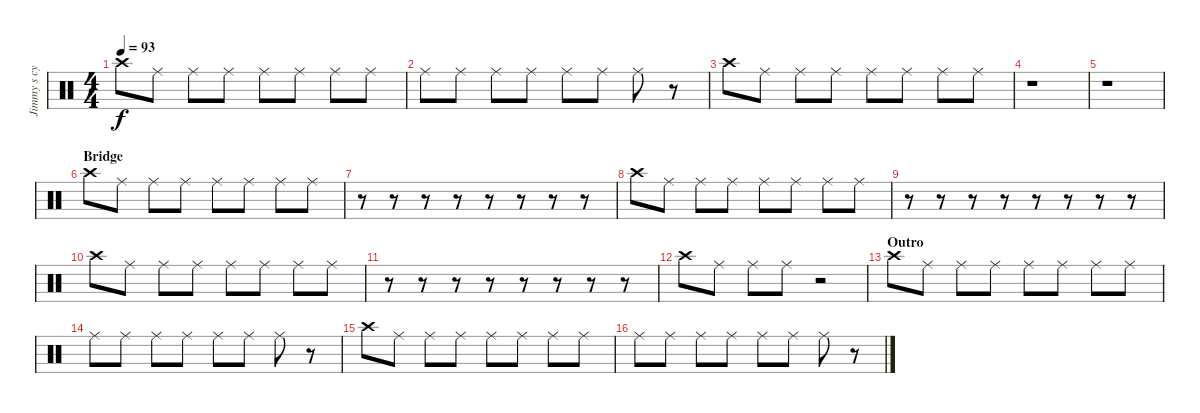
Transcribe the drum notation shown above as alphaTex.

\track ("Jimmy s cymbals" "Jimmy s cy") {instrument percussion}
\staff {score}
\articulation defaults
\ts (4 4)
\tempo 93
\clef neutral
\ks c "Crash high (hit)".8{dy f} "Ride (middle)".8 "Ride (middle)".8 "Ride (middle)".8 "Ride (middle)".8 "Ride (middle)".8 "Ride (middle)".8 "Ride (middle)".8
|
"Ride (middle)".8 "Ride (middle)".8 "Ride (middle)".8 "Ride (middle)".8 "Ride (middle)".8 "Ride (middle)".8 "Ride (middle)".8 r.8 |
"Crash high (hit)".8 "Ride (middle)".8 "Ride (middle)".8 "Ride (middle)".8 "Ride (middle)".8 "Ride (middle)".8 "Ride (middle)".8 "Ride (middle)".8 |
r.1 |
r.1 |
\section ("" "Bridge")
"Crash high (hit)".8 "Ride (middle)".8 "Ride (middle)".8 "Ride (middle)".8 "Ride (middle)".8 "Ride (middle)".8 "Ride (middle)".8 "Ride (middle)".8 |
r.8 r.8 r.8 r.8 r.8 r.8 r.8 r.8 |
"Crash high (hit)".8 "Ride (middle)".8 "Ride (middle)".8 "Ride (middle)".8 "Ride (middle)".8 "Ride (middle)".8 "Ride (middle)".8 "Ride (middle)".8 |
r.8 r.8 r.8 r.8 r.8 r.8 r.8 r.8 |
"Crash high (hit)".8 "Ride (middle)".8 "Ride (middle)".8 "Ride (middle)".8 "Ride (middle)".8 "Ride (middle)".8 "Ride (middle)".8 "Ride (middle)".8 |
r.8 r.8 r.8 r.8 r.8 r.8 r.8 r.8 |
"Crash high (hit)".8 "Ride (middle)".8 "Ride (middle)".8 "Ride (middle)".8 r.2 |
\section ("" "Outro")
"Crash high (hit)".8 "Ride (middle)".8 "Ride (middle)".8 "Ride (middle)".8 "Ride (middle)".8 "Ride (middle)".8 "Ride (middle)".8 "Ride (middle)".8 |
"Ride (middle)".8 "Ride (middle)".8 "Ride (middle)".8 "Ride (middle)".8 "Ride (middle)".8 "Ride (middle)".8 "Ride (middle)".8 r.8 |
"Crash high (hit)".8 "Ride (middle)".8 "Ride (middle)".8 "Ride (middle)".8 "Ride (middle)".8 "Ride (middle)".8 "Ride (middle)".8 "Ride (middle)".8 |
"Ride (middle)".8 "Ride (middle)".8 "Ride (middle)".8 "Ride (middle)".8 "Ride (middle)".8 "Ride (middle)".8 "Ride (middle)".8 r.8
